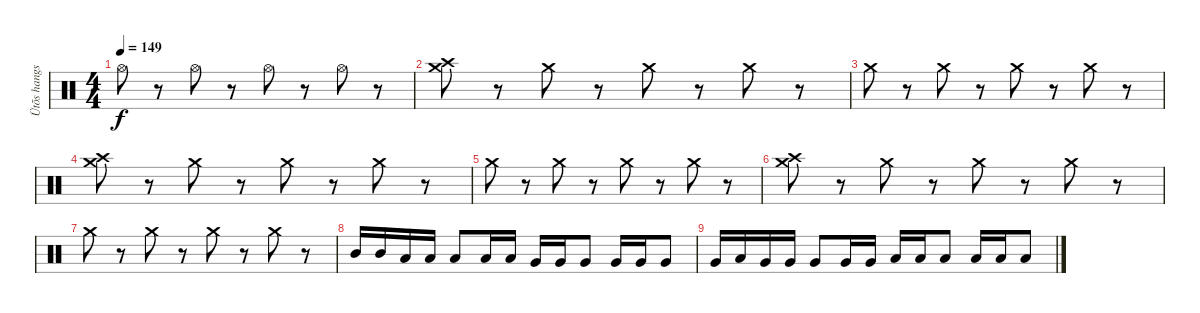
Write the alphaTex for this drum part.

\track ("Ütõs hangszer" "Ütõs hangs") {instrument percussion}
\staff {score}
\articulation defaults
\ts (4 4)
\tempo 149
\clef neutral
\ks c "Hi-Hat (open)".8{dy f}
r.8 "Hi-Hat (open)".8 r.8 "Hi-Hat (open)".8 r.8 "Hi-Hat (open)".8 r.8 |
("Crash high (hit)" "Crash medium (hit)").8 r.8 "Crash medium (hit)".8 r.8 "Crash medium (hit)".8 r.8 "Crash medium (hit)".8 r.8 |
"Crash medium (hit)".8 r.8 "Crash medium (hit)".8 r.8 "Crash medium (hit)".8 r.8 "Crash medium (hit)".8 r.8 |
("Crash high (hit)" "Crash medium (hit)").8 r.8 "Crash medium (hit)".8 r.8 "Crash medium (hit)".8 r.8 "Crash medium (hit)".8 r.8 |
"Crash medium (hit)".8 r.8 "Crash medium (hit)".8 r.8 "Crash medium (hit)".8 r.8 "Crash medium (hit)".8 r.8 |
("Crash high (hit)" "Crash medium (hit)").8 r.8 "Crash medium (hit)".8 r.8 "Crash medium (hit)".8 r.8 "Crash medium (hit)".8 r.8 |
"Crash medium (hit)".8 r.8 "Crash medium (hit)".8 r.8 "Crash medium (hit)".8 r.8 "Crash medium (hit)".8 r.8 |
"Mid Tom (hit)".16 "Mid Tom (hit)".16 "Low Tom (hit)".16 "Low Tom (hit)".16 "Low Tom (hit)".8 "Low Tom (hit)".16 "Low Tom (hit)".16 "Very Low Tom (hit)".16 "Very Low Tom (hit)".16 "Very Low Tom (hit)".8 "Very Low Tom (hit)".16 "Very Low Tom (hit)".16 "Very Low Tom (hit)".8 |
"Very Low Tom (hit)".16 "Low Tom (hit)".16 "Very Low Tom (hit)".16 "Very Low Tom (hit)".16 "Very Low Tom (hit)".8 "Very Low Tom (hit)".16 "Very Low Tom (hit)".16 "Low Tom (hit)".16 "Low Floor Tom (hit)".16 "Low Floor Tom (hit)".8 "Low Floor Tom (hit)".16 "Low Floor Tom (hit)".16 "Low Floor Tom (hit)".8
